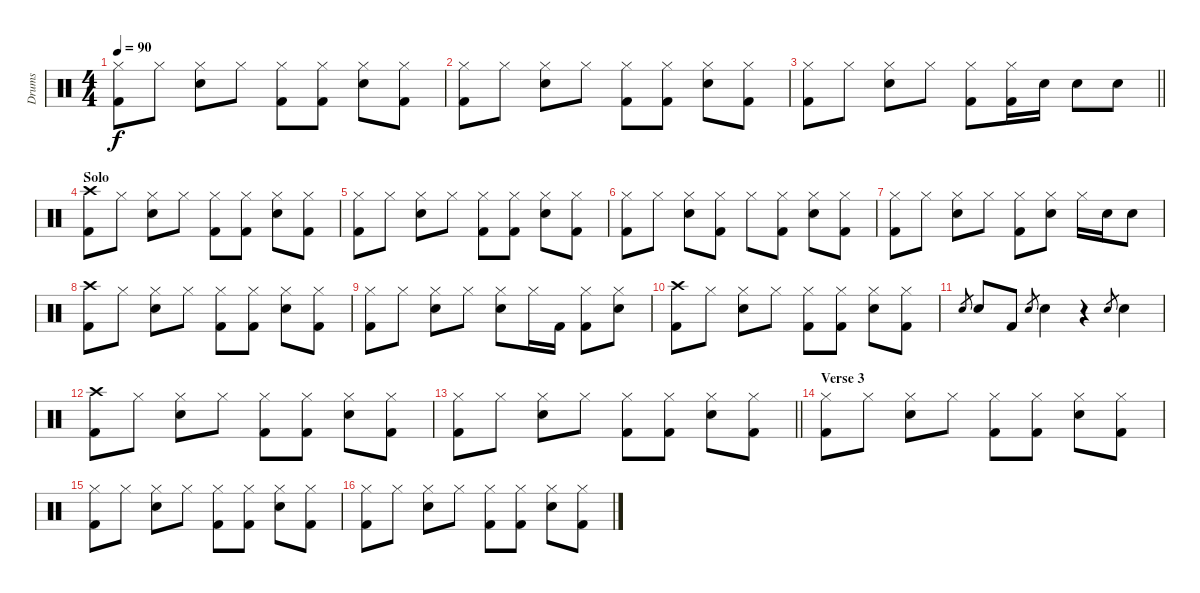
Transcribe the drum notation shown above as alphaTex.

\track ("Drums" "Drums") {instrument percussion}
\staff {score}
\articulation defaults
\ts (4 4)
\tempo 90
\clef neutral
\ks c
("Hi-Hat (closed)" "Kick (hit) 2").8{dy f} "Hi-Hat (closed)".8 ("Hi-Hat (closed)" "Snare (hit) 2").8 "Hi-Hat (closed)".8 ("Hi-Hat (closed)" "Kick (hit) 2").8 ("Hi-Hat (closed)" "Kick (hit) 2").8 ("Hi-Hat (closed)" "Snare (hit) 2").8 ("Hi-Hat (closed)" "Kick (hit) 2").8 |
("Hi-Hat (closed)" "Kick (hit) 2").8 "Hi-Hat (closed)".8 ("Hi-Hat (closed)" "Snare (hit) 2").8 "Hi-Hat (closed)".8 ("Hi-Hat (closed)" "Kick (hit) 2").8 ("Hi-Hat (closed)" "Kick (hit) 2").8 ("Hi-Hat (closed)" "Snare (hit) 2").8 ("Hi-Hat (closed)" "Kick (hit) 2").8 |
\barLineRight lightlight
("Hi-Hat (closed)" "Kick (hit) 2").8 "Hi-Hat (closed)".8 ("Hi-Hat (closed)" "Snare (hit) 2").8 "Hi-Hat (closed)".8 ("Hi-Hat (closed)" "Kick (hit) 2").8 ("Hi-Hat (closed)" "Kick (hit) 2").16 "Snare (hit) 2".16 "Snare (hit) 2".8 "Snare (hit) 2".8 |
\section ("" "Solo")
("Crash high (hit)" "Kick (hit) 2").8 "Hi-Hat (closed)".8 ("Hi-Hat (closed)" "Snare (hit) 2").8 "Hi-Hat (closed)".8 ("Hi-Hat (closed)" "Kick (hit) 2").8 ("Hi-Hat (closed)" "Kick (hit) 2").8 ("Hi-Hat (closed)" "Snare (hit) 2").8 ("Hi-Hat (closed)" "Kick (hit) 2").8 |
("Hi-Hat (closed)" "Kick (hit) 2").8 "Hi-Hat (closed)".8 ("Hi-Hat (closed)" "Snare (hit) 2").8 "Hi-Hat (closed)".8 ("Hi-Hat (closed)" "Kick (hit) 2").8 ("Hi-Hat (closed)" "Kick (hit) 2").8 ("Hi-Hat (closed)" "Snare (hit) 2").8 ("Hi-Hat (closed)" "Kick (hit) 2").8 |
("Hi-Hat (closed)" "Kick (hit) 2").8 "Hi-Hat (closed)".8 ("Hi-Hat (closed)" "Snare (hit) 2").8 ("Hi-Hat (closed)" "Kick (hit) 2").8 "Hi-Hat (closed)".8 ("Hi-Hat (closed)" "Kick (hit) 2").8 ("Hi-Hat (closed)" "Snare (hit) 2").8 ("Hi-Hat (closed)" "Kick (hit) 2").8 |
("Hi-Hat (closed)" "Kick (hit) 2").8 "Hi-Hat (closed)".8 ("Hi-Hat (closed)" "Snare (hit) 2").8 "Hi-Hat (closed)".8 ("Hi-Hat (closed)" "Kick (hit) 2").8 ("Hi-Hat (closed)" "Snare (hit) 2").8 "Hi-Hat (closed)".16 "Snare (hit) 2".16 "Snare (hit) 2".8 |
("Crash high (hit)" "Kick (hit) 2").8 "Hi-Hat (closed)".8 ("Hi-Hat (closed)" "Snare (hit) 2").8 "Hi-Hat (closed)".8 ("Hi-Hat (closed)" "Kick (hit) 2").8 ("Hi-Hat (closed)" "Kick (hit) 2").8 ("Hi-Hat (closed)" "Snare (hit) 2").8 ("Hi-Hat (closed)" "Kick (hit) 2").8 |
("Hi-Hat (closed)" "Kick (hit) 2").8 "Hi-Hat (closed)".8 ("Hi-Hat (closed)" "Snare (hit) 2").8 "Hi-Hat (closed)".8 ("Hi-Hat (closed)" "Snare (hit) 2").8 "Hi-Hat (closed)".16 "Kick (hit) 2".16 ("Hi-Hat (closed)" "Kick (hit) 2").8 ("Hi-Hat (closed)" "Snare (hit) 2").8 |
("Crash high (hit)" "Kick (hit) 2").8 "Hi-Hat (closed)".8 ("Hi-Hat (closed)" "Snare (hit) 2").8 "Hi-Hat (closed)".8 ("Hi-Hat (closed)" "Kick (hit) 2").8 ("Hi-Hat (closed)" "Kick (hit) 2").8 ("Hi-Hat (closed)" "Snare (hit) 2").8 ("Hi-Hat (closed)" "Kick (hit) 2").8 |
"Snare (hit) 2".8{gr} "Snare (hit) 2".8 "Kick (hit) 2".8 "Snare (hit) 2".8{gr} "Snare (hit) 2".4 r.4 "Snare (hit) 2".8{gr} "Snare (hit) 2".4 |
("Crash high (hit)" "Kick (hit) 2").8 "Hi-Hat (closed)".8 ("Hi-Hat (closed)" "Snare (hit) 2").8 "Hi-Hat (closed)".8 ("Hi-Hat (closed)" "Kick (hit) 2").8 ("Hi-Hat (closed)" "Kick (hit) 2").8 ("Hi-Hat (closed)" "Snare (hit) 2").8 ("Hi-Hat (closed)" "Kick (hit) 2").8 |
\barLineRight lightlight
("Hi-Hat (closed)" "Kick (hit) 2").8 "Hi-Hat (closed)".8 ("Hi-Hat (closed)" "Snare (hit) 2").8 "Hi-Hat (closed)".8 ("Hi-Hat (closed)" "Kick (hit) 2").8 ("Hi-Hat (closed)" "Kick (hit) 2").8 ("Hi-Hat (closed)" "Snare (hit) 2").8 ("Hi-Hat (closed)" "Kick (hit) 2").8 |
\section ("" "Verse 3")
("Hi-Hat (closed)" "Kick (hit) 2").8 "Hi-Hat (closed)".8 ("Hi-Hat (closed)" "Snare (hit) 2").8 "Hi-Hat (closed)".8 ("Hi-Hat (closed)" "Kick (hit) 2").8 ("Hi-Hat (closed)" "Kick (hit) 2").8 ("Hi-Hat (closed)" "Snare (hit) 2").8 ("Hi-Hat (closed)" "Kick (hit) 2").8 |
("Hi-Hat (closed)" "Kick (hit) 2").8 "Hi-Hat (closed)".8 ("Hi-Hat (closed)" "Snare (hit) 2").8 "Hi-Hat (closed)".8 ("Hi-Hat (closed)" "Kick (hit) 2").8 ("Hi-Hat (closed)" "Kick (hit) 2").8 ("Hi-Hat (closed)" "Snare (hit) 2").8 ("Hi-Hat (closed)" "Kick (hit) 2").8 |
("Hi-Hat (closed)" "Kick (hit) 2").8 "Hi-Hat (closed)".8 ("Hi-Hat (closed)" "Snare (hit) 2").8 "Hi-Hat (closed)".8 ("Hi-Hat (closed)" "Kick (hit) 2").8 ("Hi-Hat (closed)" "Kick (hit) 2").8 ("Hi-Hat (closed)" "Snare (hit) 2").8 ("Hi-Hat (closed)" "Kick (hit) 2").8
